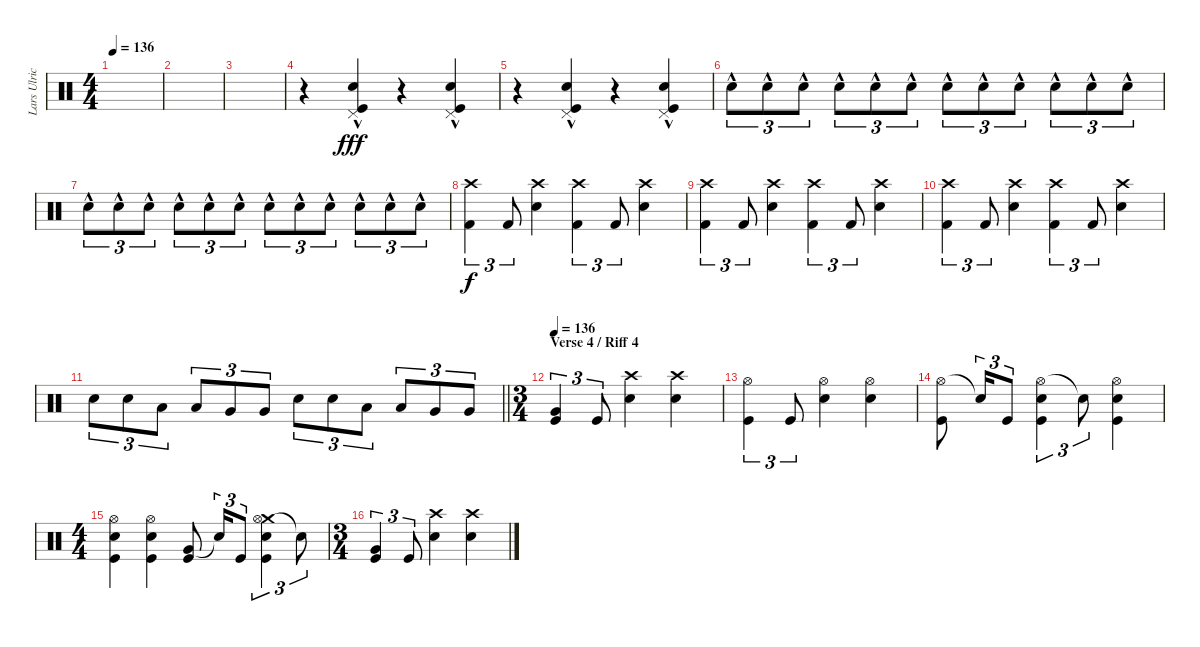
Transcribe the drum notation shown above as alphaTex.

\track ("Lars Ulrich" "Lars Ulric") {instrument percussion}
\staff {score}
\articulation defaults
\ts (4 4)
\tempo 136
\clef neutral
\ks c
|
|
|
r.4 ("Pedal Hi-Hat (hit)"{hac} "Snare (hit) 2"{hac} "Kick (hit)"{hac}).4{dy fff} r.4 ("Pedal Hi-Hat (hit)"{hac} "Snare (hit) 2"{hac} "Kick (hit)"{hac}).4 |
r.4 ("Pedal Hi-Hat (hit)"{hac} "Snare (hit) 2"{hac} "Kick (hit)"{hac}).4 r.4 ("Pedal Hi-Hat (hit)"{hac} "Snare (hit) 2"{hac} "Kick (hit)"{hac}).4 |
"Snare (hit) 2"{hac}.8{tu (3 2)} "Snare (hit) 2"{hac}.8{tu (3 2)} "Snare (hit) 2"{hac}.8{tu (3 2)} "Snare (hit) 2"{hac}.8{tu (3 2)} "Snare (hit) 2"{hac}.8{tu (3 2)} "Snare (hit) 2"{hac}.8{tu (3 2)} "Snare (hit) 2"{hac}.8{tu (3 2)} "Snare (hit) 2"{hac}.8{tu (3 2)} "Snare (hit) 2"{hac}.8{tu (3 2)} "Snare (hit) 2"{hac}.8{tu (3 2)} "Snare (hit) 2"{hac}.8{tu (3 2)} "Snare (hit) 2"{hac}.8{tu (3 2)} |
"Snare (hit) 2"{hac}.8{tu (3 2)} "Snare (hit) 2"{hac}.8{tu (3 2)} "Snare (hit) 2"{hac}.8{tu (3 2)} "Snare (hit) 2"{hac}.8{tu (3 2)} "Snare (hit) 2"{hac}.8{tu (3 2)} "Snare (hit) 2"{hac}.8{tu (3 2)} "Snare (hit) 2"{hac}.8{tu (3 2)} "Snare (hit) 2"{hac}.8{tu (3 2)} "Snare (hit) 2"{hac}.8{tu (3 2)} "Snare (hit) 2"{hac}.8{tu (3 2)} "Snare (hit) 2"{hac}.8{tu (3 2)} "Snare (hit) 2"{hac}.8{tu (3 2)} |
("Crash high (hit)" "Kick (hit) 2").4{tu (3 2) dy f} "Kick (hit) 2".8{tu (3 2)} ("Crash high (hit)" "Snare (hit) 2").4 ("Crash high (hit)" "Kick (hit) 2").4{tu (3 2)} "Kick (hit) 2".8{tu (3 2)} ("Crash high (hit)" "Snare (hit) 2").4 |
("Crash high (hit)" "Kick (hit) 2").4{tu (3 2)} "Kick (hit) 2".8{tu (3 2)} ("Crash high (hit)" "Snare (hit) 2").4 ("Crash high (hit)" "Kick (hit) 2").4{tu (3 2)} "Kick (hit) 2".8{tu (3 2)} ("Crash high (hit)" "Snare (hit) 2").4 |
("Crash high (hit)" "Kick (hit) 2").4{tu (3 2)} "Kick (hit) 2".8{tu (3 2)} ("Crash high (hit)" "Snare (hit) 2").4 ("Crash high (hit)" "Kick (hit) 2").4{tu (3 2)} "Kick (hit) 2".8{tu (3 2)} ("Crash high (hit)" "Snare (hit) 2").4 |
\barLineRight lightlight "Snare (hit) 2".8{tu (3 2)} "Snare (hit) 2".8{tu (3 2)} "Low Tom (hit)".8{tu (3 2)} "Low Tom (hit)".8{tu (3 2)} "Very Low Tom (hit)".8{tu (3 2)} "Very Low Tom (hit)".8{tu (3 2)} "Snare (hit) 2".8{tu (3 2)} "Snare (hit) 2".8{tu (3 2)} "Low Tom (hit)".8{tu (3 2)} "Low Tom (hit)".8{tu (3 2)} "Very Low Tom (hit)".8{tu (3 2)} "Very Low Tom (hit)".8{tu (3 2)}
|
\ts (3 4)
\section ("" "Verse 4 / Riff 4")
\tempo 136
("Very Low Tom (hit)" "Kick (hit)").4{tu (3 2)} "Kick (hit)".8{tu (3 2)} ("Crash high (hit)" "Snare (hit) 2").4 ("Crash high (hit)" "Snare (hit) 2").4 |
("Hi-Hat (open)" "Kick (hit)").4{tu (3 2)} "Kick (hit)".8{tu (3 2)} ("Hi-Hat (open)" "Snare (hit) 2").4 ("Hi-Hat (open)" "Snare (hit) 2").4 |
("Hi-Hat (open)" "Kick (hit)").8 "Snare (hit)"{t}.16{tu (3 2)} "Kick (hit)".8{tu (3 2)} ("Hi-Hat (open)" "Snare (hit) 2" "Kick (hit)").4{tu (3 2)} "Snare (hit)"{t}.8{tu (3 2)} ("Hi-Hat (open)" "Snare (hit) 2" "Kick (hit)").4 |
\ts (4 4)
("Hi-Hat (open)" "Snare (hit) 2" "Kick (hit)").4 ("Hi-Hat (open)" "Snare (hit) 2" "Kick (hit)").4 ("Very Low Tom (hit)" "Kick (hit)").8 "Snare (hit)"{t}.16{tu (3 2)} "Kick (hit)".8{tu (3 2)} ("Crash medium (hit)" "Hi-Hat (open)" "Snare (hit) 2" "Kick (hit)").4{tu (3 2)} "Snare (hit)"{t}.8{tu (3 2)} |
\ts (3 4)
("Very Low Tom (hit)" "Kick (hit)").4{tu (3 2)} "Kick (hit)".8{tu (3 2)} ("Crash high (hit)" "Snare (hit) 2").4 ("Crash high (hit)" "Snare (hit) 2").4
